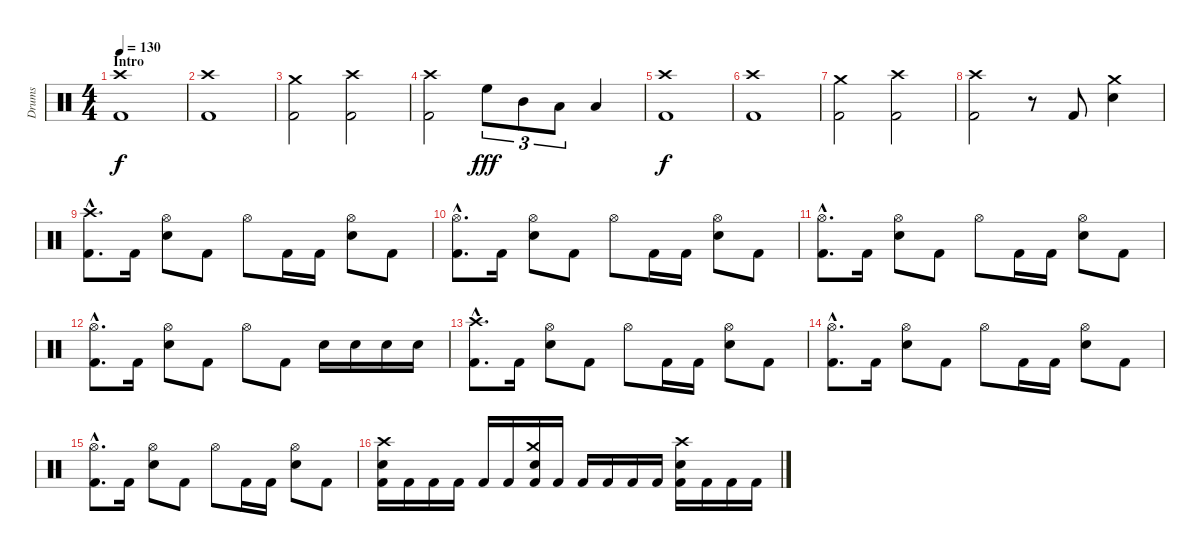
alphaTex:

\track ("Drums" "Drums") {instrument percussion}
\staff {score}
\articulation defaults
\ts (4 4)
\section ("" "Intro")
\tempo 130
\clef neutral
\ks c
("Crash high (hit)" "Kick (hit) 2").1{dy f} |
("Crash high (hit)" "Kick (hit) 2").1 |
("Crash medium (hit)" "Kick (hit) 2").2 ("Crash high (hit)" "Kick (hit) 2").2 |
("Crash high (hit)" "Kick (hit) 2").2 "High Floor Tom (hit)".8{tu (3 2) dy fff} "Mid Tom (hit)".8{tu (3 2)} "Low Tom (hit)".8{tu (3 2)} "Low Floor Tom (hit)".4 |
("Crash high (hit)" "Kick (hit) 2").1{dy f} |
("Crash high (hit)" "Kick (hit) 2").1 |
("Crash medium (hit)" "Kick (hit) 2").2 ("Crash high (hit)" "Kick (hit) 2").2 |
("Crash high (hit)" "Kick (hit) 2").2 r.8 "Kick (hit) 2".8 ("Crash medium (hit)" "Snare (hit) 2").4 |
("Crash high (hit)"{hac} "Kick (hit) 2"{hac}).8{d} "Kick (hit) 2".16 ("Hi-Hat (open)" "Snare (hit) 2").8 "Kick (hit) 2".8 "Hi-Hat (open)".8 "Kick (hit) 2".16 "Kick (hit) 2".16 ("Hi-Hat (open)" "Snare (hit) 2").8 "Kick (hit) 2".8 |
("Hi-Hat (open)"{hac} "Kick (hit) 2"{hac}).8{d} "Kick (hit) 2".16 ("Hi-Hat (open)" "Snare (hit) 2").8 "Kick (hit) 2".8 "Hi-Hat (open)".8 "Kick (hit) 2".16 "Kick (hit) 2".16 ("Hi-Hat (open)" "Snare (hit) 2").8 "Kick (hit) 2".8 |
("Hi-Hat (open)"{hac} "Kick (hit) 2"{hac}).8{d} "Kick (hit) 2".16 ("Hi-Hat (open)" "Snare (hit) 2").8 "Kick (hit) 2".8 "Hi-Hat (open)".8 "Kick (hit) 2".16 "Kick (hit) 2".16 ("Hi-Hat (open)" "Snare (hit) 2").8 "Kick (hit) 2".8 |
("Hi-Hat (open)"{hac} "Kick (hit) 2"{hac}).8{d} "Kick (hit) 2".16 ("Hi-Hat (open)" "Snare (hit) 2").8 "Kick (hit) 2".8 "Hi-Hat (open)".8 "Kick (hit) 2".8 "Snare (hit) 2".16 "Snare (hit) 2".16 "Snare (hit) 2".16 "Snare (hit) 2".16 |
("Crash high (hit)"{hac} "Kick (hit) 2"{hac}).8{d} "Kick (hit) 2".16 ("Hi-Hat (open)" "Snare (hit) 2").8 "Kick (hit) 2".8 "Hi-Hat (open)".8 "Kick (hit) 2".16 "Kick (hit) 2".16 ("Hi-Hat (open)" "Snare (hit) 2").8 "Kick (hit) 2".8 |
("Hi-Hat (open)"{hac} "Kick (hit) 2"{hac}).8{d} "Kick (hit) 2".16 ("Hi-Hat (open)" "Snare (hit) 2").8 "Kick (hit) 2".8 "Hi-Hat (open)".8 "Kick (hit) 2".16 "Kick (hit) 2".16 ("Hi-Hat (open)" "Snare (hit) 2").8 "Kick (hit) 2".8 |
("Hi-Hat (open)"{hac} "Kick (hit) 2"{hac}).8{d} "Kick (hit) 2".16 ("Hi-Hat (open)" "Snare (hit) 2").8 "Kick (hit) 2".8 "Hi-Hat (open)".8 "Kick (hit) 2".16 "Kick (hit) 2".16 ("Hi-Hat (open)" "Snare (hit) 2").8 "Kick (hit) 2".8 |
("Crash high (hit)" "Snare (hit) 2" "Kick (hit) 2").16 "Kick (hit) 2".16 "Kick (hit) 2".16 "Kick (hit) 2".16 "Kick (hit) 2".16 "Kick (hit) 2".16 ("Crash medium (hit)" "Snare (hit) 2" "Kick (hit) 2").16 "Kick (hit) 2".16 "Kick (hit) 2".16 "Kick (hit) 2".16 "Kick (hit) 2".16 "Kick (hit) 2".16 ("Crash high (hit)" "Snare (hit) 2" "Kick (hit) 2").16 "Kick (hit) 2".16 "Kick (hit) 2".16 "Kick (hit) 2".16
